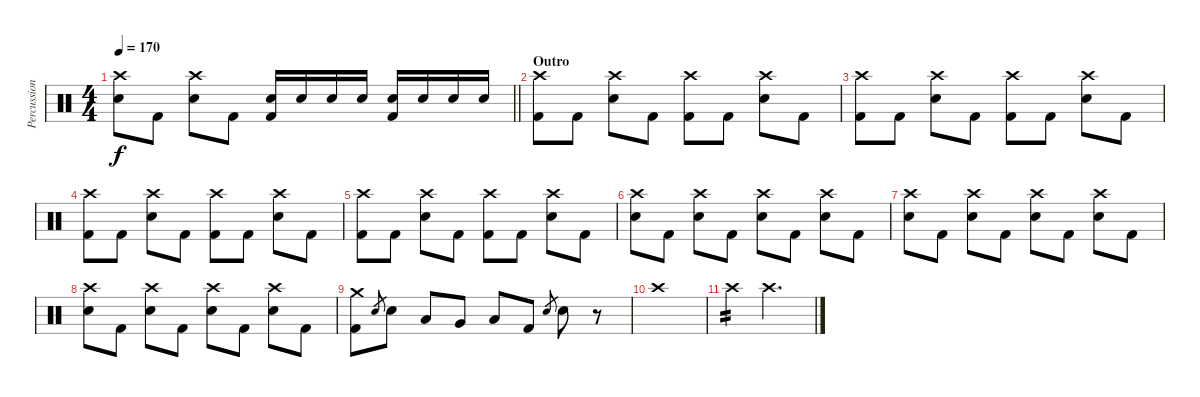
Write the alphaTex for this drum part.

\track ("Percussion" "Percussion") {instrument percussion}
\staff {score}
\articulation defaults
\ts (4 4)
\tempo 170
\clef neutral
\barLineRight lightlight
\ks c
("Crash high (hit)" "Electric Snare (hit)").8{dy f} "Kick (hit) 2".8 ("Crash high (hit)" "Electric Snare (hit)").8 "Kick (hit) 2".8 ("Electric Snare (hit)" "Kick (hit) 2").16 "Electric Snare (hit)".16 "Electric Snare (hit)".16 "Electric Snare (hit)".16 ("Electric Snare (hit)" "Kick (hit) 2").16 "Electric Snare (hit)".16 "Electric Snare (hit)".16 "Electric Snare (hit)".16 |
\section ("" "Outro")
("Crash high (hit)" "Kick (hit) 2").8 "Kick (hit) 2".8 ("Crash high (hit)" "Electric Snare (hit)").8 "Kick (hit) 2".8 ("Crash high (hit)" "Kick (hit) 2").8 "Kick (hit) 2".8 ("Crash high (hit)" "Electric Snare (hit)").8 "Kick (hit) 2".8 |
("Crash high (hit)" "Kick (hit) 2").8 "Kick (hit) 2".8 ("Crash high (hit)" "Electric Snare (hit)").8 "Kick (hit) 2".8 ("Crash high (hit)" "Kick (hit) 2").8 "Kick (hit) 2".8 ("Crash high (hit)" "Electric Snare (hit)").8 "Kick (hit) 2".8 |
("Crash high (hit)" "Kick (hit) 2").8 "Kick (hit) 2".8 ("Crash high (hit)" "Electric Snare (hit)").8 "Kick (hit) 2".8 ("Crash high (hit)" "Kick (hit) 2").8 "Kick (hit) 2".8 ("Crash high (hit)" "Electric Snare (hit)").8 "Kick (hit) 2".8 |
("Crash high (hit)" "Kick (hit) 2").8 "Kick (hit) 2".8 ("Crash high (hit)" "Electric Snare (hit)").8 "Kick (hit) 2".8 ("Crash high (hit)" "Kick (hit) 2").8 "Kick (hit) 2".8 ("Crash high (hit)" "Electric Snare (hit)").8 "Kick (hit) 2".8 |
("Crash high (hit)" "Electric Snare (hit)").8 "Kick (hit) 2".8 ("Crash high (hit)" "Electric Snare (hit)").8 "Kick (hit) 2".8 ("Crash high (hit)" "Electric Snare (hit)").8 "Kick (hit) 2".8 ("Crash high (hit)" "Electric Snare (hit)").8 "Kick (hit) 2".8 |
("Crash high (hit)" "Electric Snare (hit)").8 "Kick (hit) 2".8 ("Crash high (hit)" "Electric Snare (hit)").8 "Kick (hit) 2".8 ("Crash high (hit)" "Electric Snare (hit)").8 "Kick (hit) 2".8 ("Crash high (hit)" "Electric Snare (hit)").8 "Kick (hit) 2".8 |
("Crash high (hit)" "Electric Snare (hit)").8 "Kick (hit) 2".8 ("Crash high (hit)" "Electric Snare (hit)").8 "Kick (hit) 2".8 ("Crash high (hit)" "Electric Snare (hit)").8 "Kick (hit) 2".8 ("Crash high (hit)" "Electric Snare (hit)").8 "Kick (hit) 2".8 |
("Kick (hit) 2" "Crash medium (hit)").8 "Electric Snare (hit)".8{gr} "Electric Snare (hit)".8 "Low Tom (hit)".8 "Very Low Tom (hit)".8 "Low Tom (hit)".8 "Kick (hit) 2".8 "Electric Snare (hit)".8{gr} "Electric Snare (hit)".8 r.8 |
"Crash high (hit)".1 |
"Crash high (hit)".4{tp 2} "Crash high (hit)".2{d}
